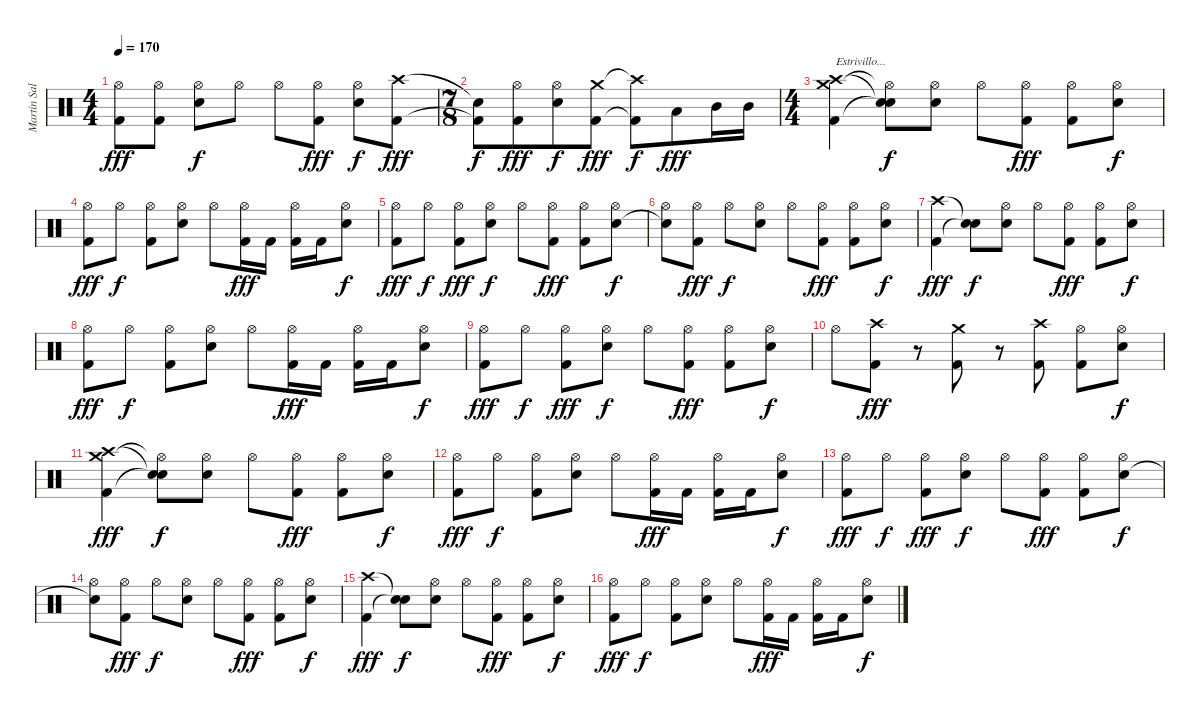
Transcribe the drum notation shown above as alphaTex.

\track ("Martín Salariato" "Martín Sal") {instrument percussion}
\staff {score}
\articulation defaults
\ts (4 4)
\tempo 170
\clef neutral
\ks c
("Hi-Hat (open)" "Kick (hit) 2").8{dy fff} ("Hi-Hat (open)" "Kick (hit) 2").8 ("Hi-Hat (open)" "Snare (hit) 2").8{dy f} "Hi-Hat (open)".8 "Hi-Hat (open)".8 ("Hi-Hat (open)" "Kick (hit) 2").8{dy fff} ("Hi-Hat (open)" "Snare (hit) 2").8{dy f} ("Crash high (hit)" "Kick (hit) 2").8{dy fff} |
\ts (7 8)
("Snare (hit)"{t} "Kick (hit) 2"{t}).8{dy f} ("Hi-Hat (open)" "Kick (hit) 2").8{dy fff} ("Hi-Hat (open)" "Snare (hit) 2").8{dy f} ("Crash medium (hit)" "Kick (hit) 2").8{dy fff} ("Crash high (hit)"{t} "Kick (hit) 2"{t}).8{dy f} "Low Tom (hit)".8{dy fff} "Mid Tom (hit)".16 "Mid Tom (hit)".16 |
\ts (4 4)
("Crash medium (hit)" "Crash high (hit)" "Kick (hit) 2").4{txt "Estrivillo..."} ("Hi-Hat (open)"{t} "Snare (hit)"{t} "Snare (hit)"{t}).8{dy f} ("Hi-Hat (open)" "Snare (hit) 2").8 "Hi-Hat (open)".8 ("Hi-Hat (open)" "Kick (hit) 2").8{dy fff} ("Hi-Hat (open)" "Kick (hit) 2").8 ("Hi-Hat (open)" "Snare (hit) 2").8{dy f} |
("Hi-Hat (open)" "Kick (hit) 2").8{dy fff} "Hi-Hat (open)".8{dy f} ("Hi-Hat (open)" "Kick (hit) 2").8 ("Hi-Hat (open)" "Snare (hit) 2").8 "Hi-Hat (open)".8 ("Hi-Hat (open)" "Kick (hit) 2").16{dy fff} "Kick (hit) 2".16 ("Hi-Hat (open)" "Kick (hit) 2").16 "Kick (hit) 2".16 ("Hi-Hat (open)" "Snare (hit) 2").8{dy f} |
("Hi-Hat (open)" "Kick (hit) 2").8{dy fff} "Hi-Hat (open)".8{dy f} ("Hi-Hat (open)" "Kick (hit) 2").8{dy fff} ("Hi-Hat (open)" "Snare (hit) 2").8{dy f} "Hi-Hat (open)".8 ("Hi-Hat (open)" "Kick (hit) 2").8{dy fff} ("Hi-Hat (open)" "Kick (hit) 2").8 ("Hi-Hat (open)" "Snare (hit) 2").8{dy f} |
("Hi-Hat (open)" "Snare (hit)"{t}).8 ("Hi-Hat (open)" "Kick (hit) 2").8{dy fff} "Hi-Hat (open)".8{dy f} ("Hi-Hat (open)" "Snare (hit) 2").8 "Hi-Hat (open)".8 ("Hi-Hat (open)" "Kick (hit) 2").8{dy fff} ("Hi-Hat (open)" "Kick (hit) 2").8 ("Hi-Hat (open)" "Snare (hit) 2").8{dy f} |
("Crash high (hit)" "Kick (hit) 2").4{dy fff} ("Snare (hit)"{t} "Snare (hit)"{t}).8{dy f} ("Hi-Hat (open)" "Snare (hit) 2").8 "Hi-Hat (open)".8 ("Hi-Hat (open)" "Kick (hit) 2").8{dy fff} ("Hi-Hat (open)" "Kick (hit) 2").8 ("Hi-Hat (open)" "Snare (hit) 2").8{dy f} |
("Hi-Hat (open)" "Kick (hit) 2").8{dy fff} "Hi-Hat (open)".8{dy f} ("Hi-Hat (open)" "Kick (hit) 2").8 ("Hi-Hat (open)" "Snare (hit) 2").8 "Hi-Hat (open)".8 ("Hi-Hat (open)" "Kick (hit) 2").16{dy fff} "Kick (hit) 2".16 ("Hi-Hat (open)" "Kick (hit) 2").16 "Kick (hit) 2".16 ("Hi-Hat (open)" "Snare (hit) 2").8{dy f} |
("Hi-Hat (open)" "Kick (hit) 2").8{dy fff} "Hi-Hat (open)".8{dy f} ("Hi-Hat (open)" "Kick (hit) 2").8{dy fff} ("Hi-Hat (open)" "Snare (hit) 2").8{dy f} "Hi-Hat (open)".8 ("Hi-Hat (open)" "Kick (hit) 2").8{dy fff} ("Hi-Hat (open)" "Kick (hit) 2").8 ("Hi-Hat (open)" "Snare (hit) 2").8{dy f} |
"Hi-Hat (open)".8 ("Crash high (hit)" "Kick (hit) 2").8{dy fff} r.8 ("Crash medium (hit)" "Kick (hit) 2").8 r.8 ("Crash high (hit)" "Kick (hit) 2").8 ("Hi-Hat (open)" "Kick (hit) 2").8 ("Hi-Hat (open)" "Snare (hit) 2").8{dy f} |
("Crash medium (hit)" "Crash high (hit)" "Kick (hit) 2").4{dy fff} ("Hi-Hat (open)"{t} "Snare (hit)"{t} "Snare (hit)"{t}).8{dy f} ("Hi-Hat (open)" "Snare (hit) 2").8 "Hi-Hat (open)".8 ("Hi-Hat (open)" "Kick (hit) 2").8{dy fff} ("Hi-Hat (open)" "Kick (hit) 2").8 ("Hi-Hat (open)" "Snare (hit) 2").8{dy f} |
("Hi-Hat (open)" "Kick (hit) 2").8{dy fff} "Hi-Hat (open)".8{dy f} ("Hi-Hat (open)" "Kick (hit) 2").8 ("Hi-Hat (open)" "Snare (hit) 2").8 "Hi-Hat (open)".8 ("Hi-Hat (open)" "Kick (hit) 2").16{dy fff} "Kick (hit) 2".16 ("Hi-Hat (open)" "Kick (hit) 2").16 "Kick (hit) 2".16 ("Hi-Hat (open)" "Snare (hit) 2").8{dy f} |
("Hi-Hat (open)" "Kick (hit) 2").8{dy fff} "Hi-Hat (open)".8{dy f} ("Hi-Hat (open)" "Kick (hit) 2").8{dy fff} ("Hi-Hat (open)" "Snare (hit) 2").8{dy f} "Hi-Hat (open)".8 ("Hi-Hat (open)" "Kick (hit) 2").8{dy fff} ("Hi-Hat (open)" "Kick (hit) 2").8 ("Hi-Hat (open)" "Snare (hit) 2").8{dy f} |
("Hi-Hat (open)" "Snare (hit)"{t}).8 ("Hi-Hat (open)" "Kick (hit) 2").8{dy fff} "Hi-Hat (open)".8{dy f} ("Hi-Hat (open)" "Snare (hit) 2").8 "Hi-Hat (open)".8 ("Hi-Hat (open)" "Kick (hit) 2").8{dy fff} ("Hi-Hat (open)" "Kick (hit) 2").8 ("Hi-Hat (open)" "Snare (hit) 2").8{dy f} |
("Crash high (hit)" "Kick (hit) 2").4{dy fff} ("Snare (hit)"{t} "Snare (hit)"{t}).8{dy f} ("Hi-Hat (open)" "Snare (hit) 2").8 "Hi-Hat (open)".8 ("Hi-Hat (open)" "Kick (hit) 2").8{dy fff} ("Hi-Hat (open)" "Kick (hit) 2").8 ("Hi-Hat (open)" "Snare (hit) 2").8{dy f} |
("Hi-Hat (open)" "Kick (hit) 2").8{dy fff} "Hi-Hat (open)".8{dy f} ("Hi-Hat (open)" "Kick (hit) 2").8 ("Hi-Hat (open)" "Snare (hit) 2").8 "Hi-Hat (open)".8 ("Hi-Hat (open)" "Kick (hit) 2").16{dy fff} "Kick (hit) 2".16 ("Hi-Hat (open)" "Kick (hit) 2").16 "Kick (hit) 2".16 ("Hi-Hat (open)" "Snare (hit) 2").8{dy f}
